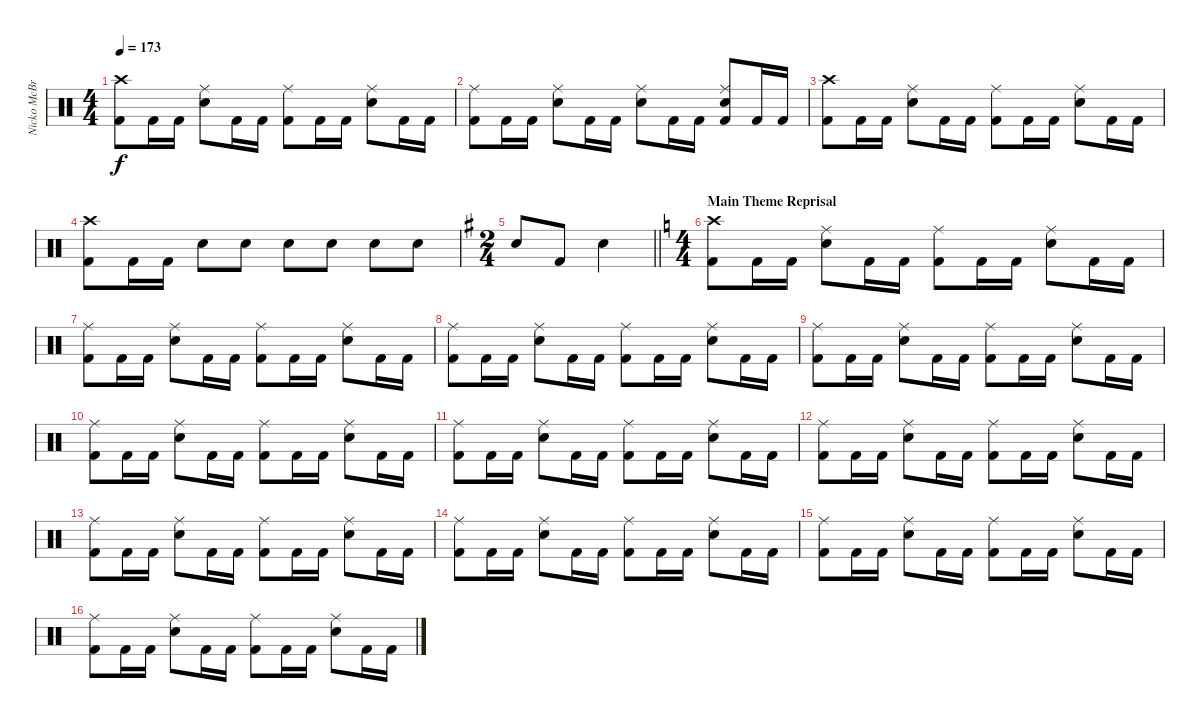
\track ("Nicko McBrain" "Nicko McBr") {instrument percussion}
\staff {score}
\articulation defaults
\ts (4 4)
\tempo 173
\clef neutral
\ks c
("Crash high (hit)" "Kick (hit) 2").8{dy f} "Kick (hit) 2".16 "Kick (hit) 2".16 ("Ride (middle)" "Electric Snare (hit)").8 "Kick (hit) 2".16 "Kick (hit) 2".16 ("Ride (middle)" "Kick (hit) 2").8 "Kick (hit) 2".16 "Kick (hit) 2".16 ("Ride (middle)" "Electric Snare (hit)").8 "Kick (hit) 2".16 "Kick (hit) 2".16 |
("Ride (middle)" "Kick (hit) 2").8 "Kick (hit) 2".16 "Kick (hit) 2".16 ("Ride (middle)" "Electric Snare (hit)").8 "Kick (hit) 2".16 "Kick (hit) 2".16 ("Ride (middle)" "Electric Snare (hit)").8 "Kick (hit) 2".16 "Kick (hit) 2".16 ("Ride (middle)" "Electric Snare (hit)" "Kick (hit) 2").8 "Kick (hit) 2".16 "Kick (hit) 2".16 |
("Crash high (hit)" "Kick (hit) 2").8 "Kick (hit) 2".16 "Kick (hit) 2".16 ("Ride (middle)" "Electric Snare (hit)").8 "Kick (hit) 2".16 "Kick (hit) 2".16 ("Ride (middle)" "Kick (hit) 2").8 "Kick (hit) 2".16 "Kick (hit) 2".16 ("Ride (middle)" "Electric Snare (hit)").8 "Kick (hit) 2".16 "Kick (hit) 2".16 |
("Crash high (hit)" "Kick (hit) 2").8 "Kick (hit) 2".16 "Kick (hit) 2".16 "Electric Snare (hit)".8 "Electric Snare (hit)".8 "Electric Snare (hit)".8 "Electric Snare (hit)".8 "Electric Snare (hit)".8 "Electric Snare (hit)".8 |
\ts (2 4)
\barLineRight lightlight
\ks g "Electric Snare (hit)".8 "Kick (hit) 2".8 "Electric Snare (hit)".4
|
\ts (4 4)
\section ("" "Main Theme Reprisal")
\ks c
("Crash high (hit)" "Kick (hit) 2").8 "Kick (hit) 2".16 "Kick (hit) 2".16 ("Ride (middle)" "Electric Snare (hit)").8 "Kick (hit) 2".16 "Kick (hit) 2".16 ("Ride (middle)" "Kick (hit) 2").8 "Kick (hit) 2".16 "Kick (hit) 2".16 ("Ride (middle)" "Electric Snare (hit)").8 "Kick (hit) 2".16 "Kick (hit) 2".16 |
("Ride (middle)" "Kick (hit) 2").8 "Kick (hit) 2".16 "Kick (hit) 2".16 ("Ride (middle)" "Electric Snare (hit)").8 "Kick (hit) 2".16 "Kick (hit) 2".16 ("Ride (middle)" "Kick (hit) 2").8 "Kick (hit) 2".16 "Kick (hit) 2".16 ("Ride (middle)" "Electric Snare (hit)").8 "Kick (hit) 2".16 "Kick (hit) 2".16 |
("Ride (middle)" "Kick (hit) 2").8 "Kick (hit) 2".16 "Kick (hit) 2".16 ("Ride (middle)" "Electric Snare (hit)").8 "Kick (hit) 2".16 "Kick (hit) 2".16 ("Ride (middle)" "Kick (hit) 2").8 "Kick (hit) 2".16 "Kick (hit) 2".16 ("Ride (middle)" "Electric Snare (hit)").8 "Kick (hit) 2".16 "Kick (hit) 2".16 |
("Ride (middle)" "Kick (hit) 2").8 "Kick (hit) 2".16 "Kick (hit) 2".16 ("Ride (middle)" "Electric Snare (hit)").8 "Kick (hit) 2".16 "Kick (hit) 2".16 ("Ride (middle)" "Kick (hit) 2").8 "Kick (hit) 2".16 "Kick (hit) 2".16 ("Ride (middle)" "Electric Snare (hit)").8 "Kick (hit) 2".16 "Kick (hit) 2".16 |
("Ride (middle)" "Kick (hit) 2").8 "Kick (hit) 2".16 "Kick (hit) 2".16 ("Ride (middle)" "Electric Snare (hit)").8 "Kick (hit) 2".16 "Kick (hit) 2".16 ("Ride (middle)" "Kick (hit) 2").8 "Kick (hit) 2".16 "Kick (hit) 2".16 ("Ride (middle)" "Electric Snare (hit)").8 "Kick (hit) 2".16 "Kick (hit) 2".16 |
("Ride (middle)" "Kick (hit) 2").8 "Kick (hit) 2".16 "Kick (hit) 2".16 ("Ride (middle)" "Electric Snare (hit)").8 "Kick (hit) 2".16 "Kick (hit) 2".16 ("Ride (middle)" "Kick (hit) 2").8 "Kick (hit) 2".16 "Kick (hit) 2".16 ("Ride (middle)" "Electric Snare (hit)").8 "Kick (hit) 2".16 "Kick (hit) 2".16 |
("Ride (middle)" "Kick (hit) 2").8 "Kick (hit) 2".16 "Kick (hit) 2".16 ("Ride (middle)" "Electric Snare (hit)").8 "Kick (hit) 2".16 "Kick (hit) 2".16 ("Ride (middle)" "Kick (hit) 2").8 "Kick (hit) 2".16 "Kick (hit) 2".16 ("Ride (middle)" "Electric Snare (hit)").8 "Kick (hit) 2".16 "Kick (hit) 2".16 |
("Ride (middle)" "Kick (hit) 2").8 "Kick (hit) 2".16 "Kick (hit) 2".16 ("Ride (middle)" "Electric Snare (hit)").8 "Kick (hit) 2".16 "Kick (hit) 2".16 ("Ride (middle)" "Kick (hit) 2").8 "Kick (hit) 2".16 "Kick (hit) 2".16 ("Ride (middle)" "Electric Snare (hit)").8 "Kick (hit) 2".16 "Kick (hit) 2".16 |
("Ride (middle)" "Kick (hit) 2").8 "Kick (hit) 2".16 "Kick (hit) 2".16 ("Ride (middle)" "Electric Snare (hit)").8 "Kick (hit) 2".16 "Kick (hit) 2".16 ("Ride (middle)" "Kick (hit) 2").8 "Kick (hit) 2".16 "Kick (hit) 2".16 ("Ride (middle)" "Electric Snare (hit)").8 "Kick (hit) 2".16 "Kick (hit) 2".16 |
("Ride (middle)" "Kick (hit) 2").8 "Kick (hit) 2".16 "Kick (hit) 2".16 ("Ride (middle)" "Electric Snare (hit)").8 "Kick (hit) 2".16 "Kick (hit) 2".16 ("Ride (middle)" "Kick (hit) 2").8 "Kick (hit) 2".16 "Kick (hit) 2".16 ("Ride (middle)" "Electric Snare (hit)").8 "Kick (hit) 2".16 "Kick (hit) 2".16 |
("Ride (middle)" "Kick (hit) 2").8 "Kick (hit) 2".16 "Kick (hit) 2".16 ("Ride (middle)" "Electric Snare (hit)").8 "Kick (hit) 2".16 "Kick (hit) 2".16 ("Ride (middle)" "Kick (hit) 2").8 "Kick (hit) 2".16 "Kick (hit) 2".16 ("Ride (middle)" "Electric Snare (hit)").8 "Kick (hit) 2".16 "Kick (hit) 2".16
